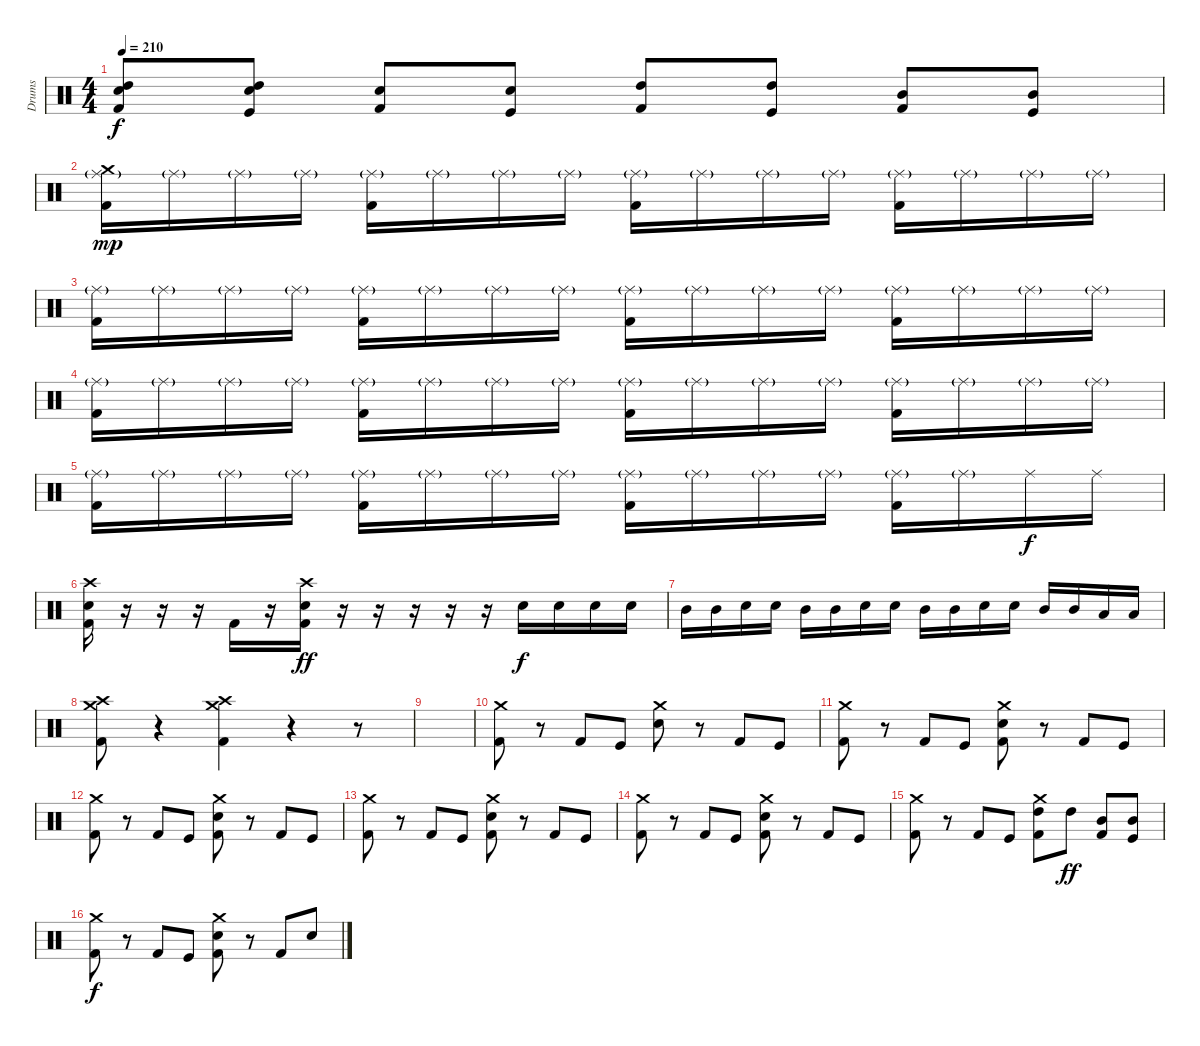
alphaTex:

\track ("Drums" "Drums") {instrument percussion}
\staff {score}
\articulation defaults
\ts (4 4)
\tempo 210
\clef neutral
\ks c
("Kick (hit) 2" "Electric Snare (hit)" "High Tom (hit)").8{dy f} ("Kick (hit)" "Electric Snare (hit)" "High Tom (hit)").8 ("Kick (hit) 2" "Electric Snare (hit)").8 ("Kick (hit)" "Electric Snare (hit)").8 ("Kick (hit) 2" "High Tom (hit)").8 ("Kick (hit)" "High Tom (hit)").8 ("Kick (hit) 2" "Mid Tom (hit)").8 ("Kick (hit)" "Mid Tom (hit)").8 |
("Kick (hit) 2" "Crash medium (hit)" "Ride (middle)"{g}).16{dy mp} "Ride (middle)"{g}.16 "Ride (middle)"{g}.16 "Ride (middle)"{g}.16 ("Kick (hit) 2" "Ride (middle)"{g}).16 "Ride (middle)"{g}.16 "Ride (middle)"{g}.16 "Ride (middle)"{g}.16 ("Kick (hit) 2" "Ride (middle)"{g}).16 "Ride (middle)"{g}.16 "Ride (middle)"{g}.16 "Ride (middle)"{g}.16 ("Kick (hit) 2" "Ride (middle)"{g}).16 "Ride (middle)"{g}.16 "Ride (middle)"{g}.16 "Ride (middle)"{g}.16 |
("Kick (hit) 2" "Ride (middle)"{g}).16 "Ride (middle)"{g}.16 "Ride (middle)"{g}.16 "Ride (middle)"{g}.16 ("Kick (hit) 2" "Ride (middle)"{g}).16 "Ride (middle)"{g}.16 "Ride (middle)"{g}.16 "Ride (middle)"{g}.16 ("Kick (hit) 2" "Ride (middle)"{g}).16 "Ride (middle)"{g}.16 "Ride (middle)"{g}.16 "Ride (middle)"{g}.16 ("Kick (hit) 2" "Ride (middle)"{g}).16 "Ride (middle)"{g}.16 "Ride (middle)"{g}.16 "Ride (middle)"{g}.16 |
("Kick (hit) 2" "Ride (middle)"{g}).16 "Ride (middle)"{g}.16 "Ride (middle)"{g}.16 "Ride (middle)"{g}.16 ("Kick (hit) 2" "Ride (middle)"{g}).16 "Ride (middle)"{g}.16 "Ride (middle)"{g}.16 "Ride (middle)"{g}.16 ("Kick (hit) 2" "Ride (middle)"{g}).16 "Ride (middle)"{g}.16 "Ride (middle)"{g}.16 "Ride (middle)"{g}.16 ("Kick (hit) 2" "Ride (middle)"{g}).16 "Ride (middle)"{g}.16 "Ride (middle)"{g}.16 "Ride (middle)"{g}.16 |
("Kick (hit) 2" "Ride (middle)"{g}).16 "Ride (middle)"{g}.16 "Ride (middle)"{g}.16 "Ride (middle)"{g}.16 ("Kick (hit) 2" "Ride (middle)"{g}).16 "Ride (middle)"{g}.16 "Ride (middle)"{g}.16 "Ride (middle)"{g}.16 ("Kick (hit) 2" "Ride (middle)"{g}).16 "Ride (middle)"{g}.16 "Ride (middle)"{g}.16 "Ride (middle)"{g}.16 ("Kick (hit) 2" "Ride (middle)"{g}).16 "Ride (middle)"{g}.16 "Ride (middle)".16{dy f} "Ride (middle)".16 |
("Kick (hit) 2" "Electric Snare (hit)" "Crash high (hit)").16 r.16 r.16 r.16 "Kick (hit) 2".16 r.16 ("Kick (hit) 2" "Electric Snare (hit)" "Crash high (hit)").16{dy ff} r.16 r.16 r.16 r.16 r.16 "Electric Snare (hit)".16{dy f} "Electric Snare (hit)".16 "Electric Snare (hit)".16 "Electric Snare (hit)".16 |
"Mid Tom (hit)".16 "Mid Tom (hit)".16 "Electric Snare (hit)".16 "Electric Snare (hit)".16 "Mid Tom (hit)".16 "Mid Tom (hit)".16 "Electric Snare (hit)".16 "Electric Snare (hit)".16 "Mid Tom (hit)".16 "Mid Tom (hit)".16 "Electric Snare (hit)".16 "Electric Snare (hit)".16 "Mid Tom (hit)".16 "Mid Tom (hit)".16 "Low Tom (hit)".16 "Low Tom (hit)".16 |
("Kick (hit) 2" "Crash high (hit)" "Crash medium (hit)").8 r.4 ("Kick (hit) 2" "Crash high (hit)" "Crash medium (hit)").4 r.4 r.8 |
|
("Kick (hit) 2" "Crash medium (hit)").8 r.8 "Kick (hit) 2".8 "Kick (hit)".8 ("Electric Snare (hit)" "Crash medium (hit)").8 r.8 "Kick (hit) 2".8 "Kick (hit)".8 |
("Kick (hit) 2" "Crash medium (hit)").8 r.8 "Kick (hit) 2".8 "Kick (hit)".8 ("Kick (hit) 2" "Electric Snare (hit)" "Crash medium (hit)").8 r.8 "Kick (hit) 2".8 "Kick (hit)".8 |
("Kick (hit) 2" "Crash medium (hit)").8 r.8 "Kick (hit) 2".8 "Kick (hit)".8 ("Kick (hit) 2" "Electric Snare (hit)" "Crash medium (hit)").8 r.8 "Kick (hit) 2".8 "Kick (hit)".8 |
("Kick (hit) 2" "Crash medium (hit)").8 r.8 "Kick (hit) 2".8 "Kick (hit)".8 ("Kick (hit) 2" "Electric Snare (hit)" "Crash medium (hit)").8 r.8 "Kick (hit) 2".8 "Kick (hit)".8 |
("Kick (hit) 2" "Crash medium (hit)").8 r.8 "Kick (hit) 2".8 "Kick (hit)".8 ("Kick (hit) 2" "Electric Snare (hit)" "Crash medium (hit)").8 r.8 "Kick (hit) 2".8 "Kick (hit)".8 |
("Kick (hit) 2" "Crash medium (hit)").8 r.8 "Kick (hit) 2".8 "Kick (hit)".8 ("Kick (hit) 2" "High Tom (hit)" "Crash medium (hit)").8 "High Tom (hit)".8{dy ff} ("Kick (hit) 2" "Mid Tom (hit)").8 ("Kick (hit)" "Mid Tom (hit)").8 |
("Kick (hit) 2" "Crash medium (hit)").8{dy f} r.8 "Kick (hit) 2".8 "Kick (hit)".8 ("Kick (hit) 2" "Electric Snare (hit)" "Crash medium (hit)").8 r.8 "Kick (hit) 2".8 "Electric Snare (hit)".8
